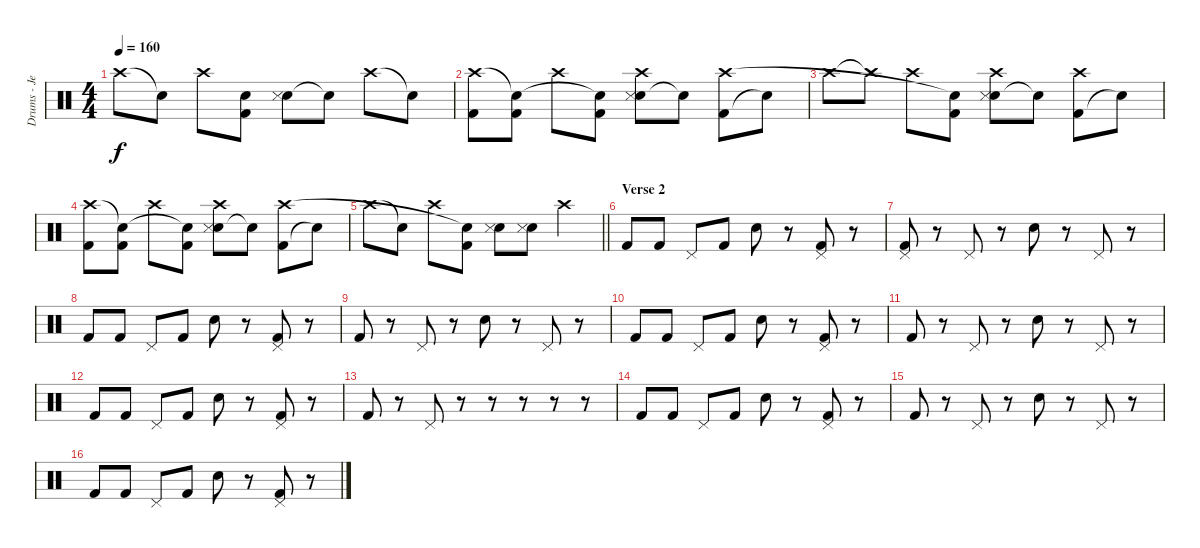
\track ("Drums - Jen Ledger" "Drums - Je") {instrument percussion}
\staff {score}
\articulation defaults
\ts (4 4)
\tempo 160
\clef neutral
\ks c "Crash high (hit)".8{dy f} "Snare (hit)"{t}.8 "Crash high (hit)".8
("Kick (hit) 2" "Snare (hit)"{t}).8 ("Snare (hit) 2" "Snare (side stick) 3").8 "Snare (hit)"{t}.8 "Crash high (hit)".8 "Snare (hit)"{t}.8 |
("Kick (hit) 2" "Crash high (hit)").8 ("Kick (hit) 2" "Snare (hit)"{t}).8 "Crash high (hit)".8 ("Kick (hit) 2" "Snare (hit)"{t}).8 ("Snare (hit) 2" "Snare (side stick) 3" "Crash high (hit)").8 "Snare (hit)"{t}.8 ("Kick (hit) 2" "Crash high (hit)").8 "Snare (hit)"{t}.8 |
"Crash high (hit)".8 "Crash high (hit)"{t}.8 "Crash high (hit)".8 ("Kick (hit) 2" "Snare (hit)"{t}).8 ("Snare (hit) 2" "Snare (side stick) 3" "Crash high (hit)").8 "Snare (hit)"{t}.8 ("Kick (hit) 2" "Crash high (hit)").8 "Snare (hit)"{t}.8 |
("Kick (hit) 2" "Crash high (hit)").8 ("Kick (hit) 2" "Snare (hit)"{t}).8 "Crash high (hit)".8 ("Kick (hit) 2" "Snare (hit)"{t}).8 ("Snare (hit) 2" "Snare (side stick) 3" "Crash high (hit)").8 "Snare (hit)"{t}.8 ("Kick (hit) 2" "Crash high (hit)").8 "Snare (hit)"{t}.8 |
\barLineRight lightlight "Crash high (hit)".8 "Snare (hit)"{t}.8 "Crash high (hit)".8
("Kick (hit) 2" "Snare (hit)"{t}).8 ("Snare (hit) 2" "Snare (side stick) 3").8 ("Snare (hit) 2" "Snare (side stick) 3").8 "Crash high (hit)".4 |
\section ("" "Verse 2")
"Kick (hit) 2".8 "Kick (hit) 2".8 "Pedal Hi-Hat (hit)".8 "Kick (hit) 2".8 "Snare (hit) 2".8 r.8 ("Kick (hit) 2" "Pedal Hi-Hat (hit)").8 r.8 |
("Kick (hit) 2" "Pedal Hi-Hat (hit)").8 r.8 "Pedal Hi-Hat (hit)".8 r.8 "Snare (hit) 2".8 r.8 "Pedal Hi-Hat (hit)".8 r.8 |
"Kick (hit) 2".8 "Kick (hit) 2".8 "Pedal Hi-Hat (hit)".8 "Kick (hit) 2".8 "Snare (hit) 2".8 r.8 ("Kick (hit) 2" "Pedal Hi-Hat (hit)").8 r.8 |
"Kick (hit) 2".8 r.8 "Pedal Hi-Hat (hit)".8 r.8 "Snare (hit) 2".8 r.8 "Pedal Hi-Hat (hit)".8 r.8 |
"Kick (hit) 2".8 "Kick (hit) 2".8 "Pedal Hi-Hat (hit)".8 "Kick (hit) 2".8 "Snare (hit) 2".8 r.8 ("Kick (hit) 2" "Pedal Hi-Hat (hit)").8 r.8 |
"Kick (hit) 2".8 r.8 "Pedal Hi-Hat (hit)".8 r.8 "Snare (hit) 2".8 r.8 "Pedal Hi-Hat (hit)".8 r.8 |
"Kick (hit) 2".8 "Kick (hit) 2".8 "Pedal Hi-Hat (hit)".8 "Kick (hit) 2".8 "Snare (hit) 2".8 r.8 ("Kick (hit) 2" "Pedal Hi-Hat (hit)").8 r.8 |
"Kick (hit) 2".8 r.8 "Pedal Hi-Hat (hit)".8 r.8 r.8 r.8 r.8 r.8 |
"Kick (hit) 2".8 "Kick (hit) 2".8 "Pedal Hi-Hat (hit)".8 "Kick (hit) 2".8 "Snare (hit) 2".8 r.8 ("Kick (hit) 2" "Pedal Hi-Hat (hit)").8 r.8 |
"Kick (hit) 2".8 r.8 "Pedal Hi-Hat (hit)".8 r.8 "Snare (hit) 2".8 r.8 "Pedal Hi-Hat (hit)".8 r.8 |
"Kick (hit) 2".8 "Kick (hit) 2".8 "Pedal Hi-Hat (hit)".8 "Kick (hit) 2".8 "Snare (hit) 2".8 r.8 ("Kick (hit) 2" "Pedal Hi-Hat (hit)").8 r.8
